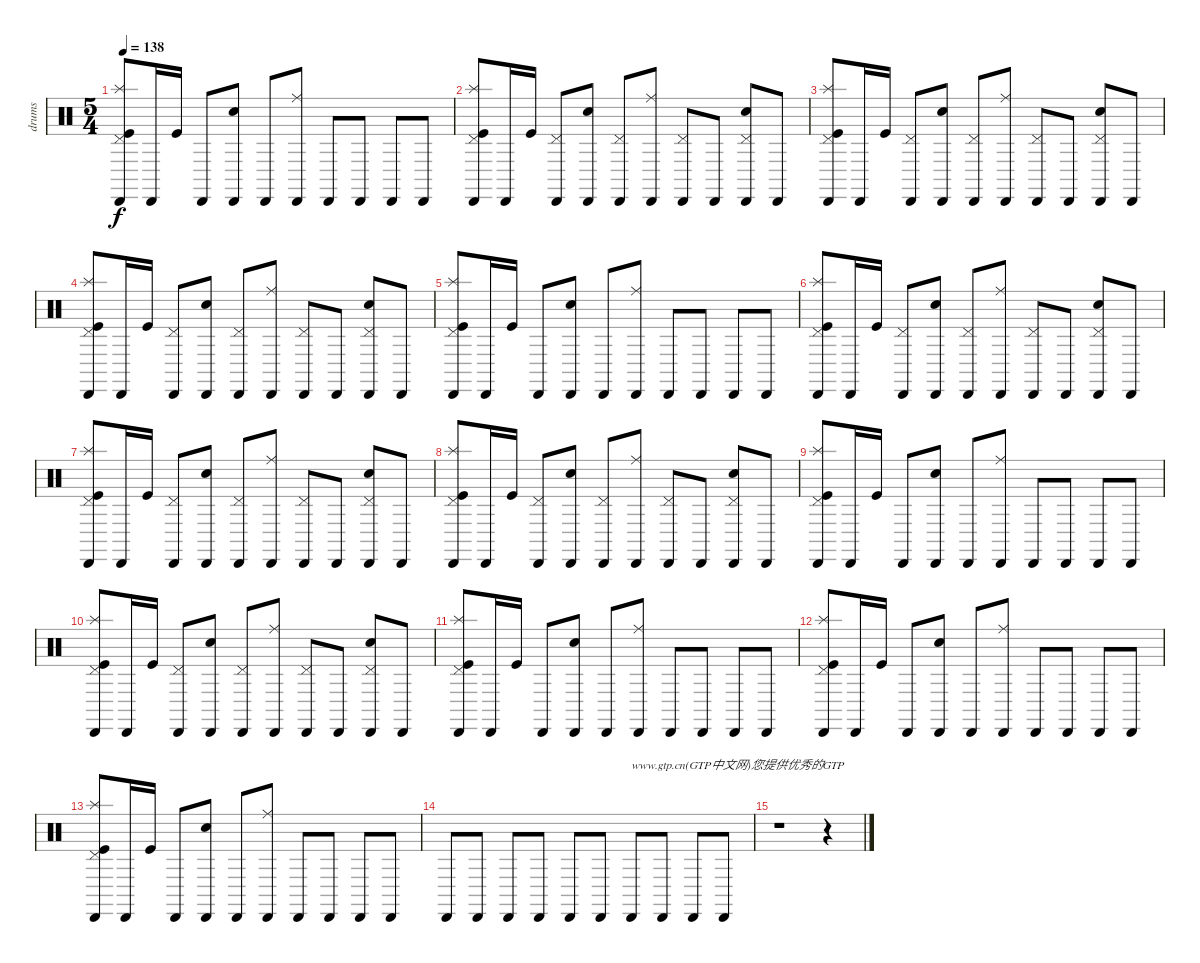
\track ("drums" "drums") {instrument percussion}
\staff {score}
\articulation defaults
\ts (5 4)
\tempo 138
\clef neutral
\ks c
("Pedal Hi-Hat (hit)" "Splash (hit)" "Kick (hit)" "Cabasa (hit)").8{dy f} "Cabasa (hit)".16 "Kick (hit)".16 "Cabasa (hit)".8 ("Snare (hit) 2" "Cabasa (hit)").8 "Cabasa (hit)".8 ("Ride (middle)" "Cabasa (hit)").8 "Cabasa (hit)".8 "Cabasa (hit)".8 "Cabasa (hit)".8 "Cabasa (hit)".8 |
("Cabasa (hit)" "Splash (hit)" "Pedal Hi-Hat (hit)" "Kick (hit)").8 "Cabasa (hit)".16 "Kick (hit)".16 ("Pedal Hi-Hat (hit)" "Cabasa (hit)").8 ("Snare (hit) 2" "Cabasa (hit)").8 ("Pedal Hi-Hat (hit)" "Cabasa (hit)").8 ("Ride (middle)" "Cabasa (hit)").8 ("Pedal Hi-Hat (hit)" "Cabasa (hit)").8 "Cabasa (hit)".8 ("Snare (hit) 2" "Pedal Hi-Hat (hit)" "Cabasa (hit)").8 "Cabasa (hit)".8 |
("Cabasa (hit)" "Splash (hit)" "Pedal Hi-Hat (hit)" "Kick (hit)").8 "Cabasa (hit)".16 "Kick (hit)".16 ("Pedal Hi-Hat (hit)" "Cabasa (hit)").8 ("Snare (hit) 2" "Cabasa (hit)").8 ("Pedal Hi-Hat (hit)" "Cabasa (hit)").8 ("Ride (middle)" "Cabasa (hit)").8 ("Pedal Hi-Hat (hit)" "Cabasa (hit)").8 "Cabasa (hit)".8 ("Snare (hit) 2" "Pedal Hi-Hat (hit)" "Cabasa (hit)").8 "Cabasa (hit)".8 |
("Cabasa (hit)" "Splash (hit)" "Pedal Hi-Hat (hit)" "Kick (hit)").8 "Cabasa (hit)".16 "Kick (hit)".16 ("Pedal Hi-Hat (hit)" "Cabasa (hit)").8 ("Snare (hit) 2" "Cabasa (hit)").8 ("Pedal Hi-Hat (hit)" "Cabasa (hit)").8 ("Ride (middle)" "Cabasa (hit)").8 ("Pedal Hi-Hat (hit)" "Cabasa (hit)").8 "Cabasa (hit)".8 ("Snare (hit) 2" "Pedal Hi-Hat (hit)" "Cabasa (hit)").8 "Cabasa (hit)".8 |
("Pedal Hi-Hat (hit)" "Splash (hit)" "Kick (hit)" "Cabasa (hit)").8 "Cabasa (hit)".16 "Kick (hit)".16 "Cabasa (hit)".8 ("Snare (hit) 2" "Cabasa (hit)").8 "Cabasa (hit)".8 ("Ride (middle)" "Cabasa (hit)").8 "Cabasa (hit)".8 "Cabasa (hit)".8 "Cabasa (hit)".8 "Cabasa (hit)".8 |
("Cabasa (hit)" "Splash (hit)" "Pedal Hi-Hat (hit)" "Kick (hit)").8 "Cabasa (hit)".16 "Kick (hit)".16 ("Pedal Hi-Hat (hit)" "Cabasa (hit)").8 ("Snare (hit) 2" "Cabasa (hit)").8 ("Pedal Hi-Hat (hit)" "Cabasa (hit)").8 ("Ride (middle)" "Cabasa (hit)").8 ("Pedal Hi-Hat (hit)" "Cabasa (hit)").8 "Cabasa (hit)".8 ("Snare (hit) 2" "Pedal Hi-Hat (hit)" "Cabasa (hit)").8 "Cabasa (hit)".8 |
("Cabasa (hit)" "Splash (hit)" "Pedal Hi-Hat (hit)" "Kick (hit)").8 "Cabasa (hit)".16 "Kick (hit)".16 ("Pedal Hi-Hat (hit)" "Cabasa (hit)").8 ("Snare (hit) 2" "Cabasa (hit)").8 ("Pedal Hi-Hat (hit)" "Cabasa (hit)").8 ("Ride (middle)" "Cabasa (hit)").8 ("Pedal Hi-Hat (hit)" "Cabasa (hit)").8 "Cabasa (hit)".8 ("Snare (hit) 2" "Pedal Hi-Hat (hit)" "Cabasa (hit)").8 "Cabasa (hit)".8 |
("Cabasa (hit)" "Splash (hit)" "Pedal Hi-Hat (hit)" "Kick (hit)").8 "Cabasa (hit)".16 "Kick (hit)".16 ("Pedal Hi-Hat (hit)" "Cabasa (hit)").8 ("Snare (hit) 2" "Cabasa (hit)").8 ("Pedal Hi-Hat (hit)" "Cabasa (hit)").8 ("Ride (middle)" "Cabasa (hit)").8 ("Pedal Hi-Hat (hit)" "Cabasa (hit)").8 "Cabasa (hit)".8 ("Snare (hit) 2" "Pedal Hi-Hat (hit)" "Cabasa (hit)").8 "Cabasa (hit)".8 |
("Pedal Hi-Hat (hit)" "Splash (hit)" "Kick (hit)" "Cabasa (hit)").8 "Cabasa (hit)".16 "Kick (hit)".16 "Cabasa (hit)".8 ("Snare (hit) 2" "Cabasa (hit)").8 "Cabasa (hit)".8 ("Ride (middle)" "Cabasa (hit)").8 "Cabasa (hit)".8 "Cabasa (hit)".8 "Cabasa (hit)".8 "Cabasa (hit)".8 |
("Cabasa (hit)" "Splash (hit)" "Pedal Hi-Hat (hit)" "Kick (hit)").8 "Cabasa (hit)".16 "Kick (hit)".16 ("Pedal Hi-Hat (hit)" "Cabasa (hit)").8 ("Snare (hit) 2" "Cabasa (hit)").8 ("Pedal Hi-Hat (hit)" "Cabasa (hit)").8 ("Ride (middle)" "Cabasa (hit)").8 ("Pedal Hi-Hat (hit)" "Cabasa (hit)").8 "Cabasa (hit)".8 ("Snare (hit) 2" "Pedal Hi-Hat (hit)" "Cabasa (hit)").8 "Cabasa (hit)".8 |
("Pedal Hi-Hat (hit)" "Splash (hit)" "Kick (hit)" "Cabasa (hit)").8 "Cabasa (hit)".16 "Kick (hit)".16 "Cabasa (hit)".8 ("Snare (hit) 2" "Cabasa (hit)").8 "Cabasa (hit)".8 ("Ride (middle)" "Cabasa (hit)").8 "Cabasa (hit)".8 "Cabasa (hit)".8 "Cabasa (hit)".8 "Cabasa (hit)".8 |
("Pedal Hi-Hat (hit)" "Splash (hit)" "Kick (hit)" "Cabasa (hit)").8 "Cabasa (hit)".16 "Kick (hit)".16 "Cabasa (hit)".8 ("Snare (hit) 2" "Cabasa (hit)").8 "Cabasa (hit)".8 ("Ride (middle)" "Cabasa (hit)").8 "Cabasa (hit)".8 "Cabasa (hit)".8 "Cabasa (hit)".8 "Cabasa (hit)".8 |
("Pedal Hi-Hat (hit)" "Splash (hit)" "Kick (hit)" "Cabasa (hit)").8 "Cabasa (hit)".16 "Kick (hit)".16 "Cabasa (hit)".8 ("Snare (hit) 2" "Cabasa (hit)").8 "Cabasa (hit)".8 ("Ride (middle)" "Cabasa (hit)").8 "Cabasa (hit)".8 "Cabasa (hit)".8 "Cabasa (hit)".8 "Cabasa (hit)".8 |
"Cabasa (hit)".8 "Cabasa (hit)".8 "Cabasa (hit)".8 "Cabasa (hit)".8 "Cabasa (hit)".8 "Cabasa (hit)".8 "Cabasa (hit)".8{txt "www.gtp.cn(GTP中文网)您提供优秀的GTP"} "Cabasa (hit)".8 "Cabasa (hit)".8 "Cabasa (hit)".8 |
r.1 r.4
